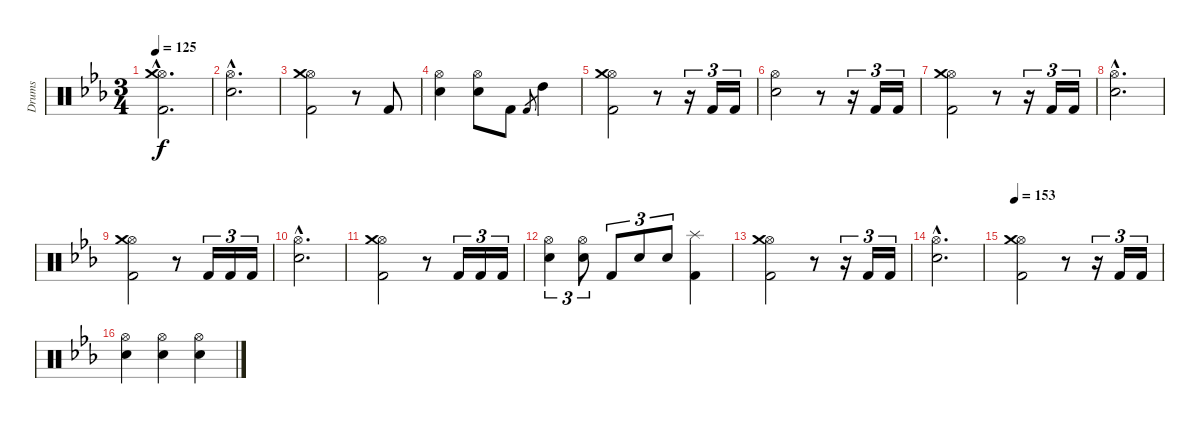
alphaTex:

\track ("Drums" "Drums") {instrument percussion}
\staff {score}
\articulation defaults
\ts (3 4)
\tempo 125
\clef neutral
\ks eb
("Kick (hit) 2"{hac} "Hi-Hat (open)"{hac} "Crash medium (hit)"{hac}).2{d dy f} |
("Electric Snare (hit)"{hac} "Hi-Hat (open)"{hac}).2{d} |
("Kick (hit) 2" "Hi-Hat (open)" "Crash medium (hit)").2 r.8 "Kick (hit) 2".8 |
("Electric Snare (hit)" "Hi-Hat (open)").4 ("Electric Snare (hit)" "Hi-Hat (open)").8 "Kick (hit) 2".8 "Kick (hit) 2".8{gr} "High Tom (hit)".4 |
("Kick (hit) 2" "Hi-Hat (open)" "Crash medium (hit)").2 r.8 r.16{tu (3 2)} "Kick (hit) 2".16{tu (3 2)} "Kick (hit) 2".16{tu (3 2)} |
("Electric Snare (hit)" "Hi-Hat (open)").2 r.8 r.16{tu (3 2)} "Kick (hit) 2".16{tu (3 2)} "Kick (hit) 2".16{tu (3 2)} |
("Kick (hit) 2" "Hi-Hat (open)" "Crash medium (hit)").2 r.8 r.16{tu (3 2)} "Kick (hit) 2".16{tu (3 2)} "Kick (hit) 2".16{tu (3 2)} |
("Electric Snare (hit)"{hac} "Hi-Hat (open)"{hac}).2{d} |
("Kick (hit) 2" "Hi-Hat (open)" "Crash medium (hit)").2 r.8 "Kick (hit) 2".16{tu (3 2)} "Kick (hit) 2".16{tu (3 2)} "Kick (hit) 2".16{tu (3 2)} |
("Electric Snare (hit)"{hac} "Hi-Hat (open)"{hac}).2{d} |
("Kick (hit) 2" "Hi-Hat (open)" "Crash medium (hit)").2 r.8 "Kick (hit) 2".16{tu (3 2)} "Kick (hit) 2".16{tu (3 2)} "Kick (hit) 2".16{tu (3 2)} |
("Electric Snare (hit)" "Hi-Hat (open)").4{tu (3 2)} ("Electric Snare (hit)" "Hi-Hat (open)").8{tu (3 2)} "Kick (hit) 2".8{tu (3 2)} "Electric Snare (hit)".8{tu (3 2)} "Electric Snare (hit)".8{tu (3 2)} ("Kick (hit) 2" "Splash (hit)").4 |
("Kick (hit) 2" "Hi-Hat (open)" "Crash medium (hit)").2 r.8 r.16{tu (3 2)} "Kick (hit) 2".16{tu (3 2)} "Kick (hit) 2".16{tu (3 2)} |
("Electric Snare (hit)"{hac} "Hi-Hat (open)"{hac}).2{d} |
\tempo 153
("Kick (hit) 2" "Hi-Hat (open)" "Crash medium (hit)").2 r.8 r.16{tu (3 2)} "Kick (hit) 2".16{tu (3 2)} "Kick (hit) 2".16{tu (3 2)} |
("Electric Snare (hit)" "Hi-Hat (open)").4 ("Electric Snare (hit)" "Hi-Hat (open)").4 ("Electric Snare (hit)" "Hi-Hat (open)").4
